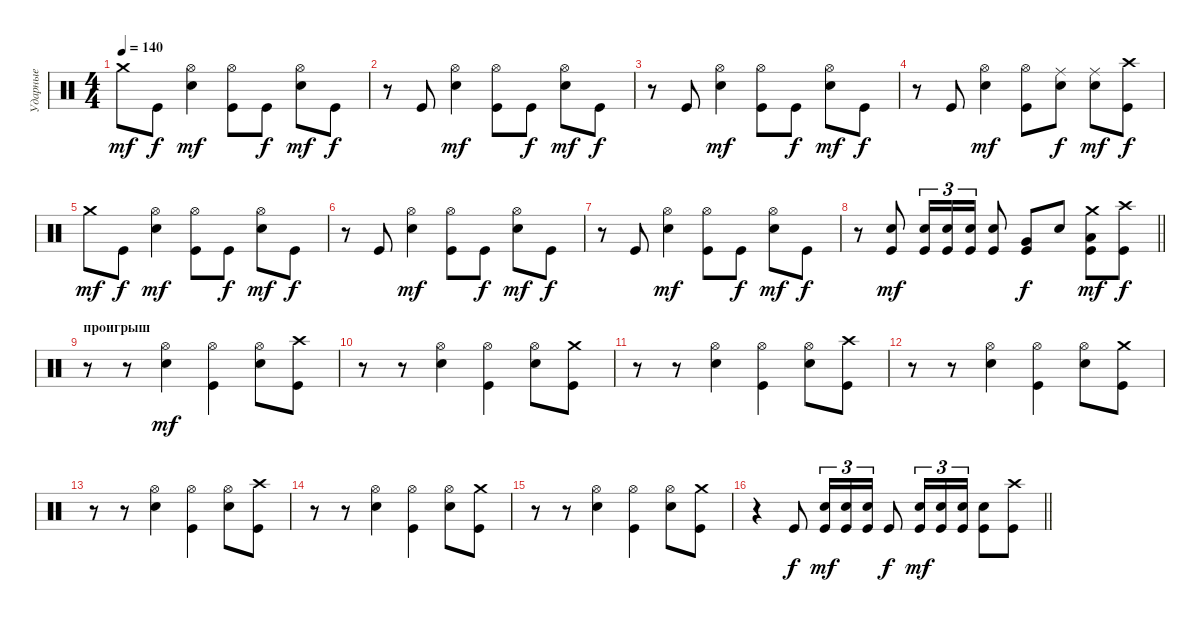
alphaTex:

\track ("Ударные" "Ударные") {instrument percussion}
\staff {score}
\articulation defaults
\ts (4 4)
\tempo 140
\clef neutral
\ks c "Crash medium (hit)".8{dy mf} "Kick (hit)".8{dy f}
("Electric Snare (hit)" "Hi-Hat (open)").4{dy mf} ("Kick (hit)" "Hi-Hat (open)").8 "Kick (hit)".8{dy f} ("Electric Snare (hit)" "Hi-Hat (open)").8{dy mf} "Kick (hit)".8{dy f} |
r.8 "Kick (hit)".8 ("Electric Snare (hit)" "Hi-Hat (open)").4{dy mf} ("Kick (hit)" "Hi-Hat (open)").8 "Kick (hit)".8{dy f} ("Electric Snare (hit)" "Hi-Hat (open)").8{dy mf} "Kick (hit)".8{dy f} |
r.8 "Kick (hit)".8 ("Electric Snare (hit)" "Hi-Hat (open)").4{dy mf} ("Kick (hit)" "Hi-Hat (open)").8 "Kick (hit)".8{dy f} ("Electric Snare (hit)" "Hi-Hat (open)").8{dy mf} "Kick (hit)".8{dy f} |
r.8 "Kick (hit)".8 ("Electric Snare (hit)" "Hi-Hat (open)").4{dy mf} ("Kick (hit)" "Hi-Hat (open)").8 ("Electric Snare (hit)" "Ride (middle)").8{dy f} ("Electric Snare (hit)" "Ride (middle)").8{dy mf} ("Kick (hit)" "Crash high (hit)").8{dy f} |
"Crash medium (hit)".8{dy mf} "Kick (hit)".8{dy f} ("Electric Snare (hit)" "Hi-Hat (open)").4{dy mf} ("Kick (hit)" "Hi-Hat (open)").8 "Kick (hit)".8{dy f} ("Electric Snare (hit)" "Hi-Hat (open)").8{dy mf} "Kick (hit)".8{dy f} |
r.8 "Kick (hit)".8 ("Electric Snare (hit)" "Hi-Hat (open)").4{dy mf} ("Kick (hit)" "Hi-Hat (open)").8 "Kick (hit)".8{dy f} ("Electric Snare (hit)" "Hi-Hat (open)").8{dy mf} "Kick (hit)".8{dy f} |
r.8 "Kick (hit)".8 ("Electric Snare (hit)" "Hi-Hat (open)").4{dy mf} ("Kick (hit)" "Hi-Hat (open)").8 "Kick (hit)".8{dy f} ("Electric Snare (hit)" "Hi-Hat (open)").8{dy mf} "Kick (hit)".8{dy f} |
\barLineRight lightlight
r.8 ("Kick (hit)" "Electric Snare (hit)").8{dy mf} ("Kick (hit)" "Electric Snare (hit)").16{tu (3 2)} ("Kick (hit)" "Electric Snare (hit)").16{tu (3 2)} ("Kick (hit)" "Electric Snare (hit)").16{tu (3 2)} ("Kick (hit)" "Electric Snare (hit)").8 ("Kick (hit)" "Very Low Tom (hit)").8{dy f} "Electric Snare (hit)".8 ("Kick (hit)" "Low Floor Tom (hit)" "Crash medium (hit)").8{dy mf} ("Kick (hit)" "Crash high (hit)").8{dy f} |
\section ("" "проигрыш")
r.8 r.8 ("Electric Snare (hit)" "Hi-Hat (open)").4{dy mf} ("Kick (hit)" "Hi-Hat (open)").4 ("Electric Snare (hit)" "Hi-Hat (open)").8 ("Kick (hit)" "Crash high (hit)").8 |
r.8 r.8 ("Electric Snare (hit)" "Hi-Hat (open)").4 ("Kick (hit)" "Hi-Hat (open)").4 ("Electric Snare (hit)" "Hi-Hat (open)").8 ("Kick (hit)" "Crash medium (hit)").8 |
r.8 r.8 ("Electric Snare (hit)" "Hi-Hat (open)").4 ("Kick (hit)" "Hi-Hat (open)").4 ("Electric Snare (hit)" "Hi-Hat (open)").8 ("Kick (hit)" "Crash high (hit)").8 |
r.8 r.8 ("Electric Snare (hit)" "Hi-Hat (open)").4 ("Kick (hit)" "Hi-Hat (open)").4 ("Electric Snare (hit)" "Hi-Hat (open)").8 ("Kick (hit)" "Crash medium (hit)").8 |
r.8 r.8 ("Electric Snare (hit)" "Hi-Hat (open)").4 ("Kick (hit)" "Hi-Hat (open)").4 ("Electric Snare (hit)" "Hi-Hat (open)").8 ("Kick (hit)" "Crash high (hit)").8 |
r.8 r.8 ("Electric Snare (hit)" "Hi-Hat (open)").4 ("Kick (hit)" "Hi-Hat (open)").4 ("Electric Snare (hit)" "Hi-Hat (open)").8 ("Kick (hit)" "Crash medium (hit)").8 |
r.8 r.8 ("Electric Snare (hit)" "Hi-Hat (open)").4 ("Kick (hit)" "Hi-Hat (open)").4 ("Electric Snare (hit)" "Hi-Hat (open)").8 ("Kick (hit)" "Crash medium (hit)").8 |
\barLineRight lightlight
r.4 "Kick (hit)".8{dy f} ("Kick (hit)" "Electric Snare (hit)").16{tu (3 2) dy mf} ("Kick (hit)" "Electric Snare (hit)").16{tu (3 2)} ("Kick (hit)" "Electric Snare (hit)").16{tu (3 2)} "Kick (hit)".8{dy f} ("Kick (hit)" "Electric Snare (hit)").16{tu (3 2) dy mf} ("Kick (hit)" "Electric Snare (hit)").16{tu (3 2)} ("Kick (hit)" "Electric Snare (hit)").16{tu (3 2)} ("Kick (hit)" "Electric Snare (hit)").8 ("Kick (hit)" "Crash high (hit)").8
